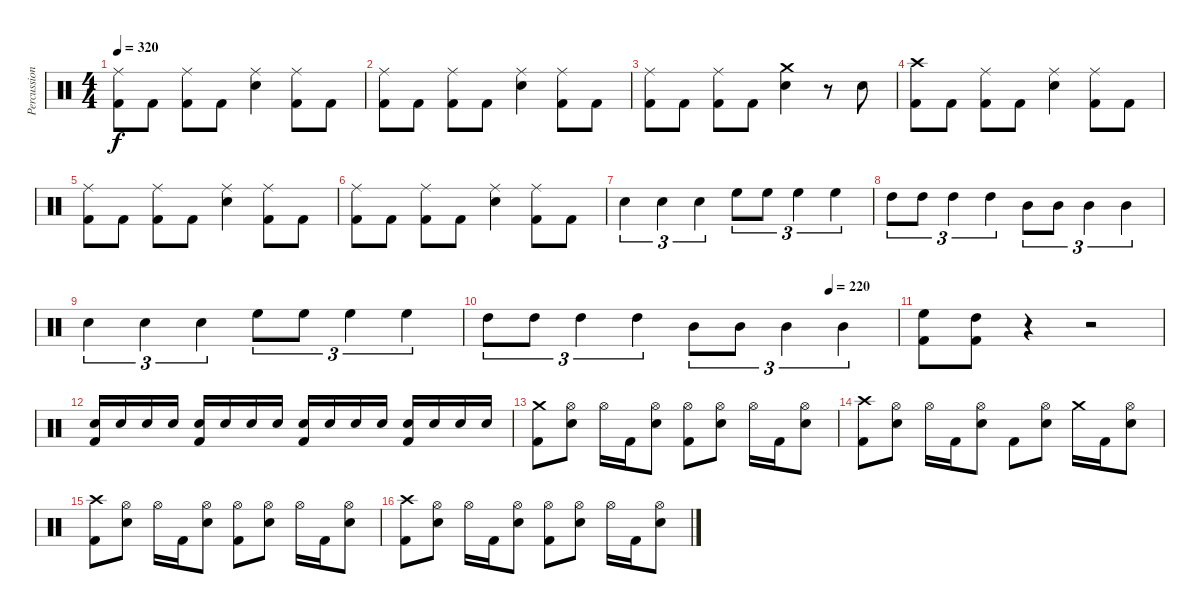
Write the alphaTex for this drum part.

\track ("Percussion" "Percussion") {instrument percussion}
\staff {score}
\articulation defaults
\ts (4 4)
\tempo 320
\clef neutral
\ks c
("Ride (middle)" "Kick (hit) 2").8{dy f} "Kick (hit) 2".8 ("Ride (middle)" "Kick (hit) 2").8 "Kick (hit) 2".8 ("Ride (middle)" "Electric Snare (hit)").4 ("Ride (middle)" "Kick (hit) 2").8 "Kick (hit) 2".8 |
("Ride (middle)" "Kick (hit) 2").8 "Kick (hit) 2".8 ("Ride (middle)" "Kick (hit) 2").8 "Kick (hit) 2".8 ("Ride (middle)" "Electric Snare (hit)").4 ("Ride (middle)" "Kick (hit) 2").8 "Kick (hit) 2".8 |
("Ride (middle)" "Kick (hit) 2").8 "Kick (hit) 2".8 ("Ride (middle)" "Kick (hit) 2").8 "Kick (hit) 2".8 ("Crash medium (hit)" "Electric Snare (hit)").4 r.8 "Electric Snare (hit)".8 |
("Crash high (hit)" "Kick (hit) 2").8 "Kick (hit) 2".8 ("Ride (middle)" "Kick (hit) 2").8 "Kick (hit) 2".8 ("Ride (middle)" "Electric Snare (hit)").4 ("Ride (middle)" "Kick (hit) 2").8 "Kick (hit) 2".8 |
("Ride (middle)" "Kick (hit) 2").8 "Kick (hit) 2".8 ("Ride (middle)" "Kick (hit) 2").8 "Kick (hit) 2".8 ("Ride (middle)" "Electric Snare (hit)").4 ("Ride (middle)" "Kick (hit) 2").8 "Kick (hit) 2".8 |
("Ride (middle)" "Kick (hit) 2").8 "Kick (hit) 2".8 ("Ride (middle)" "Kick (hit) 2").8 "Kick (hit) 2".8 ("Ride (middle)" "Electric Snare (hit)").4 ("Ride (middle)" "Kick (hit) 2").8 "Kick (hit) 2".8 |
"Electric Snare (hit)".4{tu (3 2)} "Electric Snare (hit)".4{tu (3 2)} "Electric Snare (hit)".4{tu (3 2)} "High Floor Tom (hit)".8{tu (3 2)} "High Floor Tom (hit)".8{tu (3 2)} "High Floor Tom (hit)".4{tu (3 2)} "High Floor Tom (hit)".4{tu (3 2)} |
"High Tom (hit)".8{tu (3 2)} "High Tom (hit)".8{tu (3 2)} "High Tom (hit)".4{tu (3 2)} "High Tom (hit)".4{tu (3 2)} "Mid Tom (hit)".8{tu (3 2)} "Mid Tom (hit)".8{tu (3 2)} "Mid Tom (hit)".4{tu (3 2)} "Mid Tom (hit)".4{tu (3 2)} |
"Electric Snare (hit)".4{tu (3 2)} "Electric Snare (hit)".4{tu (3 2)} "Electric Snare (hit)".4{tu (3 2)} "High Floor Tom (hit)".8{tu (3 2)} "High Floor Tom (hit)".8{tu (3 2)} "High Floor Tom (hit)".4{tu (3 2)} "High Floor Tom (hit)".4{tu (3 2)} |
\tempo (220 0.8333333333333334)
"High Tom (hit)".8{tu (3 2)} "High Tom (hit)".8{tu (3 2)} "High Tom (hit)".4{tu (3 2)} "High Tom (hit)".4{tu (3 2)} "Mid Tom (hit)".8{tu (3 2)} "Mid Tom (hit)".8{tu (3 2)} "Mid Tom (hit)".4{tu (3 2)} "Mid Tom (hit)".4{tu (3 2)} |
("High Floor Tom (hit)" "Kick (hit) 2").8 ("High Tom (hit)" "Kick (hit) 2").8 r.4 r.2 |
("Electric Snare (hit)" "Kick (hit) 2").16 "Electric Snare (hit)".16 "Electric Snare (hit)".16 "Electric Snare (hit)".16 ("Electric Snare (hit)" "Kick (hit) 2").16 "Electric Snare (hit)".16 "Electric Snare (hit)".16 "Electric Snare (hit)".16 ("Electric Snare (hit)" "Kick (hit) 2").16 "Electric Snare (hit)".16 "Electric Snare (hit)".16 "Electric Snare (hit)".16 ("Electric Snare (hit)" "Kick (hit) 2").16 "Electric Snare (hit)".16 "Electric Snare (hit)".16 "Electric Snare (hit)".16 |
("Crash medium (hit)" "Kick (hit) 2").8 ("Hi-Hat (open)" "Electric Snare (hit)").8 "Hi-Hat (open)".16 "Kick (hit) 2".16 ("Hi-Hat (open)" "Electric Snare (hit)").8 ("Hi-Hat (open)" "Kick (hit) 2").8 ("Hi-Hat (open)" "Electric Snare (hit)").8 "Hi-Hat (open)".16 "Kick (hit) 2".16 ("Hi-Hat (open)" "Electric Snare (hit)").8 |
("Crash high (hit)" "Kick (hit) 2").8 ("Hi-Hat (open)" "Electric Snare (hit)").8 "Hi-Hat (open)".16 "Kick (hit) 2".16 ("Hi-Hat (open)" "Electric Snare (hit)").8 "Kick (hit) 2".8 ("Hi-Hat (open)" "Electric Snare (hit)").8 "Crash medium (hit)".16 "Kick (hit) 2".16 ("Hi-Hat (open)" "Electric Snare (hit)").8 |
("Crash high (hit)" "Kick (hit) 2").8 ("Hi-Hat (open)" "Electric Snare (hit)").8 "Hi-Hat (open)".16 "Kick (hit) 2".16 ("Hi-Hat (open)" "Electric Snare (hit)").8 ("Hi-Hat (open)" "Kick (hit) 2").8 ("Hi-Hat (open)" "Electric Snare (hit)").8 "Hi-Hat (open)".16 "Kick (hit) 2".16 ("Hi-Hat (open)" "Electric Snare (hit)").8 |
("Crash high (hit)" "Kick (hit) 2").8 ("Hi-Hat (open)" "Electric Snare (hit)").8 "Hi-Hat (open)".16 "Kick (hit) 2".16 ("Hi-Hat (open)" "Electric Snare (hit)").8 ("Hi-Hat (open)" "Kick (hit) 2").8 ("Hi-Hat (open)" "Electric Snare (hit)").8 "Hi-Hat (open)".16 "Kick (hit) 2".16 ("Hi-Hat (open)" "Electric Snare (hit)").8
